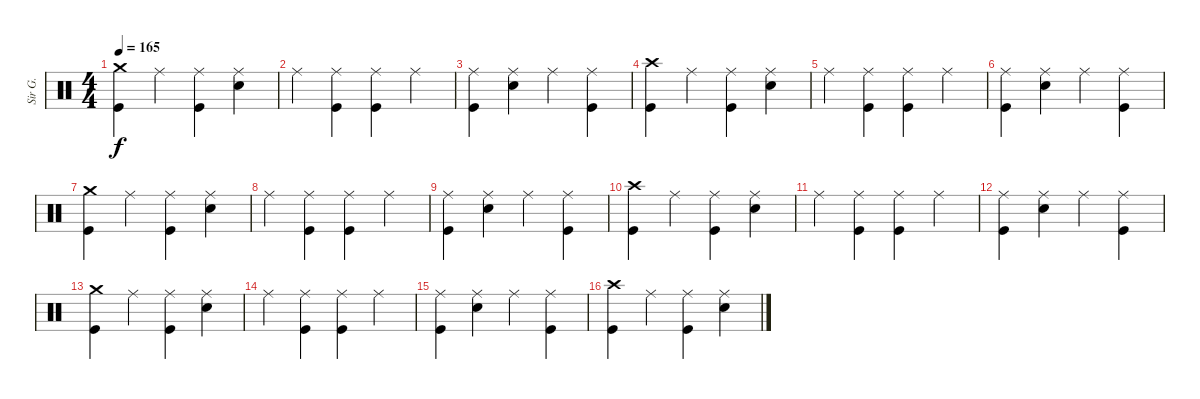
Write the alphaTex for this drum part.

\track ("Sir G." "Sir G.") {instrument percussion}
\staff {score}
\articulation defaults
\ts (4 4)
\tempo 165
\clef neutral
\ks c
("Crash medium (hit)" "Kick (hit)").4{dy f} "Ride (middle)".4 ("Ride (middle)" "Kick (hit)").4 ("Ride (middle)" "Electric Snare (hit)").4 |
"Ride (middle)".4 ("Ride (middle)" "Kick (hit)").4 ("Ride (middle)" "Kick (hit)").4 "Ride (middle)".4 |
("Ride (middle)" "Kick (hit)").4 ("Ride (middle)" "Electric Snare (hit)").4 "Ride (middle)".4 ("Ride (middle)" "Kick (hit)").4 |
("Crash high (hit)" "Kick (hit)").4 "Ride (middle)".4 ("Ride (middle)" "Kick (hit)").4 ("Ride (middle)" "Electric Snare (hit)").4 |
"Ride (middle)".4 ("Ride (middle)" "Kick (hit)").4 ("Ride (middle)" "Kick (hit)").4 "Ride (middle)".4 |
("Ride (middle)" "Kick (hit)").4 ("Ride (middle)" "Electric Snare (hit)").4 "Ride (middle)".4 ("Ride (middle)" "Kick (hit)").4 |
("Crash medium (hit)" "Kick (hit)").4 "Ride (middle)".4 ("Ride (middle)" "Kick (hit)").4 ("Ride (middle)" "Electric Snare (hit)").4 |
"Ride (middle)".4 ("Ride (middle)" "Kick (hit)").4 ("Ride (middle)" "Kick (hit)").4 "Ride (middle)".4 |
("Ride (middle)" "Kick (hit)").4 ("Ride (middle)" "Electric Snare (hit)").4 "Ride (middle)".4 ("Ride (middle)" "Kick (hit)").4 |
("Crash high (hit)" "Kick (hit)").4 "Ride (middle)".4 ("Ride (middle)" "Kick (hit)").4 ("Ride (middle)" "Electric Snare (hit)").4 |
"Ride (middle)".4 ("Ride (middle)" "Kick (hit)").4 ("Ride (middle)" "Kick (hit)").4 "Ride (middle)".4 |
("Ride (middle)" "Kick (hit)").4 ("Ride (middle)" "Electric Snare (hit)").4 "Ride (middle)".4 ("Ride (middle)" "Kick (hit)").4 |
("Crash medium (hit)" "Kick (hit)").4 "Ride (middle)".4 ("Ride (middle)" "Kick (hit)").4 ("Ride (middle)" "Electric Snare (hit)").4 |
"Ride (middle)".4 ("Ride (middle)" "Kick (hit)").4 ("Ride (middle)" "Kick (hit)").4 "Ride (middle)".4 |
("Ride (middle)" "Kick (hit)").4 ("Ride (middle)" "Electric Snare (hit)").4 "Ride (middle)".4 ("Ride (middle)" "Kick (hit)").4 |
("Crash high (hit)" "Kick (hit)").4 "Ride (middle)".4 ("Ride (middle)" "Kick (hit)").4 ("Ride (middle)" "Electric Snare (hit)").4
